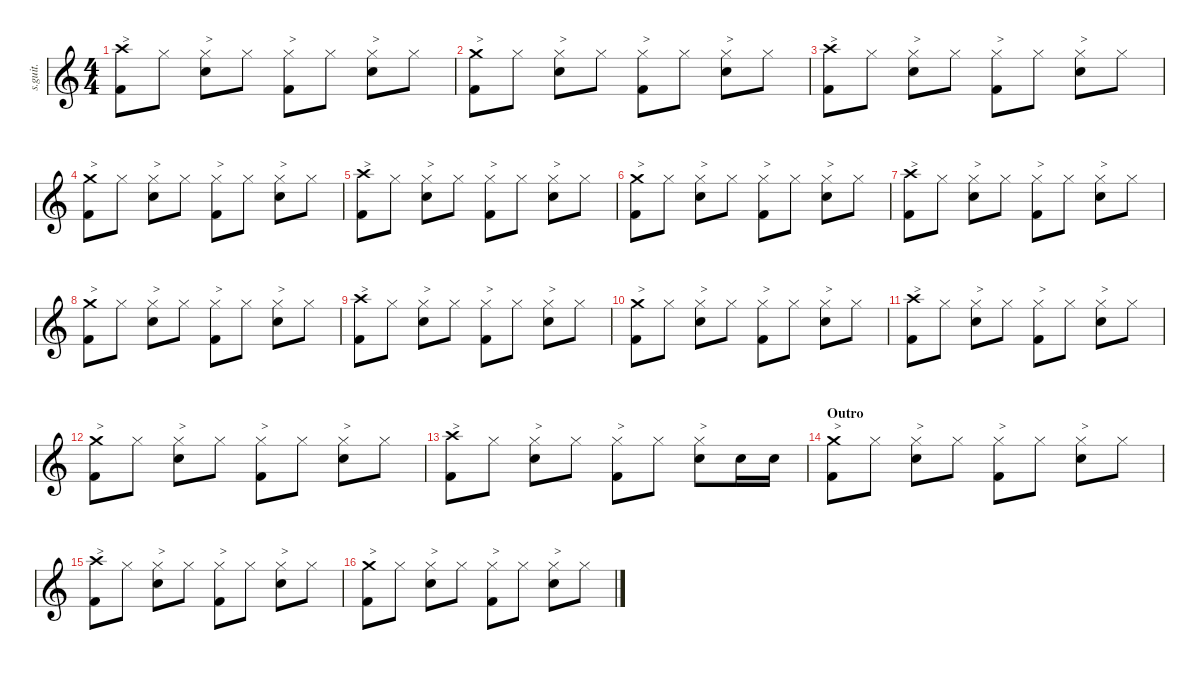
\defaultSystemsLayout 4
\hideDynamics
\bracketExtendMode nobrackets
\track ("Chris Slade" "s.guit.") {instrument percussion}
\staff {score}
\articulation defaults
\ts (4 4)
\tempo (134 hide)
\clef g2
\ks c
("Crash high (hit)" "Kick (hit) 2").8{txt ">" lyrics (0 "") lyrics (1 "") lyrics (2 "") lyrics (3 "") lyrics (4 "") dy f} "Hi-Hat (closed)".8{lyrics (0 "") lyrics (1 "") lyrics (2 "") lyrics (3 "") lyrics (4 "")} ("Hi-Hat (closed)" "Snare (hit) 2").8{txt ">" lyrics (0 "") lyrics (1 "") lyrics (2 "") lyrics (3 "") lyrics (4 "")} "Hi-Hat (closed)".8{lyrics (0 "") lyrics (1 "") lyrics (2 "") lyrics (3 "") lyrics (4 "") dy mf} ("Hi-Hat (closed)" "Kick (hit) 2").8{txt ">" lyrics (0 "") lyrics (1 "") lyrics (2 "") lyrics (3 "") lyrics (4 "") dy ff} "Hi-Hat (closed)".8{lyrics (0 "") lyrics (1 "") lyrics (2 "") lyrics (3 "") lyrics (4 "") dy mf} ("Hi-Hat (closed)" "Snare (hit) 2").8{txt ">" lyrics (0 "") lyrics (1 "") lyrics (2 "") lyrics (3 "") lyrics (4 "") dy f} "Hi-Hat (closed)".8{lyrics (0 "") lyrics (1 "") lyrics (2 "") lyrics (3 "") lyrics (4 "") dy mf} |
("Crash medium (hit)" "Kick (hit) 2").8{txt ">" lyrics (0 "") lyrics (1 "") lyrics (2 "") lyrics (3 "") lyrics (4 "") dy ff} "Hi-Hat (closed)".8{lyrics (0 "") lyrics (1 "") lyrics (2 "") lyrics (3 "") lyrics (4 "") dy f} ("Hi-Hat (closed)" "Snare (hit) 2").8{txt ">" lyrics (0 "") lyrics (1 "") lyrics (2 "") lyrics (3 "") lyrics (4 "")} "Hi-Hat (closed)".8{lyrics (0 "") lyrics (1 "") lyrics (2 "") lyrics (3 "") lyrics (4 "") dy mf} ("Hi-Hat (closed)" "Kick (hit) 2").8{txt ">" lyrics (0 "") lyrics (1 "") lyrics (2 "") lyrics (3 "") lyrics (4 "") dy ff} "Hi-Hat (closed)".8{lyrics (0 "") lyrics (1 "") lyrics (2 "") lyrics (3 "") lyrics (4 "") dy mf} ("Hi-Hat (closed)" "Snare (hit) 2").8{txt ">" lyrics (0 "") lyrics (1 "") lyrics (2 "") lyrics (3 "") lyrics (4 "") dy f} "Hi-Hat (closed)".8{lyrics (0 "") lyrics (1 "") lyrics (2 "") lyrics (3 "") lyrics (4 "") dy mf} |
("Crash high (hit)" "Kick (hit) 2").8{txt ">" lyrics (0 "") lyrics (1 "") lyrics (2 "") lyrics (3 "") lyrics (4 "") dy f} "Hi-Hat (closed)".8{lyrics (0 "") lyrics (1 "") lyrics (2 "") lyrics (3 "") lyrics (4 "")} ("Hi-Hat (closed)" "Snare (hit) 2").8{txt ">" lyrics (0 "") lyrics (1 "") lyrics (2 "") lyrics (3 "") lyrics (4 "")} "Hi-Hat (closed)".8{lyrics (0 "") lyrics (1 "") lyrics (2 "") lyrics (3 "") lyrics (4 "") dy mf} ("Hi-Hat (closed)" "Kick (hit) 2").8{txt ">" lyrics (0 "") lyrics (1 "") lyrics (2 "") lyrics (3 "") lyrics (4 "") dy ff} "Hi-Hat (closed)".8{lyrics (0 "") lyrics (1 "") lyrics (2 "") lyrics (3 "") lyrics (4 "") dy mf} ("Hi-Hat (closed)" "Snare (hit) 2").8{txt ">" lyrics (0 "") lyrics (1 "") lyrics (2 "") lyrics (3 "") lyrics (4 "") dy f} "Hi-Hat (closed)".8{lyrics (0 "") lyrics (1 "") lyrics (2 "") lyrics (3 "") lyrics (4 "") dy mf} |
("Crash medium (hit)" "Kick (hit) 2").8{txt ">" lyrics (0 "") lyrics (1 "") lyrics (2 "") lyrics (3 "") lyrics (4 "") dy ff} "Hi-Hat (closed)".8{lyrics (0 "") lyrics (1 "") lyrics (2 "") lyrics (3 "") lyrics (4 "") dy f} ("Hi-Hat (closed)" "Snare (hit) 2").8{txt ">" lyrics (0 "") lyrics (1 "") lyrics (2 "") lyrics (3 "") lyrics (4 "")} "Hi-Hat (closed)".8{lyrics (0 "") lyrics (1 "") lyrics (2 "") lyrics (3 "") lyrics (4 "") dy mf} ("Hi-Hat (closed)" "Kick (hit) 2").8{txt ">" lyrics (0 "") lyrics (1 "") lyrics (2 "") lyrics (3 "") lyrics (4 "") dy ff} "Hi-Hat (closed)".8{lyrics (0 "") lyrics (1 "") lyrics (2 "") lyrics (3 "") lyrics (4 "") dy mf} ("Hi-Hat (closed)" "Snare (hit) 2").8{txt ">" lyrics (0 "") lyrics (1 "") lyrics (2 "") lyrics (3 "") lyrics (4 "") dy f} "Hi-Hat (closed)".8{lyrics (0 "") lyrics (1 "") lyrics (2 "") lyrics (3 "") lyrics (4 "") dy mf} |
("Crash high (hit)" "Kick (hit) 2").8{txt ">" lyrics (0 "") lyrics (1 "") lyrics (2 "") lyrics (3 "") lyrics (4 "") dy f} "Hi-Hat (closed)".8{lyrics (0 "") lyrics (1 "") lyrics (2 "") lyrics (3 "") lyrics (4 "")} ("Hi-Hat (closed)" "Snare (hit) 2").8{txt ">" lyrics (0 "") lyrics (1 "") lyrics (2 "") lyrics (3 "") lyrics (4 "")} "Hi-Hat (closed)".8{lyrics (0 "") lyrics (1 "") lyrics (2 "") lyrics (3 "") lyrics (4 "") dy mf} ("Hi-Hat (closed)" "Kick (hit) 2").8{txt ">" lyrics (0 "") lyrics (1 "") lyrics (2 "") lyrics (3 "") lyrics (4 "") dy ff} "Hi-Hat (closed)".8{lyrics (0 "") lyrics (1 "") lyrics (2 "") lyrics (3 "") lyrics (4 "") dy mf} ("Hi-Hat (closed)" "Snare (hit) 2").8{txt ">" lyrics (0 "") lyrics (1 "") lyrics (2 "") lyrics (3 "") lyrics (4 "") dy f} "Hi-Hat (closed)".8{lyrics (0 "") lyrics (1 "") lyrics (2 "") lyrics (3 "") lyrics (4 "") dy mf} |
("Crash medium (hit)" "Kick (hit) 2").8{txt ">" lyrics (0 "") lyrics (1 "") lyrics (2 "") lyrics (3 "") lyrics (4 "") dy ff} "Hi-Hat (closed)".8{lyrics (0 "") lyrics (1 "") lyrics (2 "") lyrics (3 "") lyrics (4 "") dy f} ("Hi-Hat (closed)" "Snare (hit) 2").8{txt ">" lyrics (0 "") lyrics (1 "") lyrics (2 "") lyrics (3 "") lyrics (4 "")} "Hi-Hat (closed)".8{lyrics (0 "") lyrics (1 "") lyrics (2 "") lyrics (3 "") lyrics (4 "") dy mf} ("Hi-Hat (closed)" "Kick (hit) 2").8{txt ">" lyrics (0 "") lyrics (1 "") lyrics (2 "") lyrics (3 "") lyrics (4 "") dy ff} "Hi-Hat (closed)".8{lyrics (0 "") lyrics (1 "") lyrics (2 "") lyrics (3 "") lyrics (4 "") dy mf} ("Hi-Hat (closed)" "Snare (hit) 2").8{txt ">" lyrics (0 "") lyrics (1 "") lyrics (2 "") lyrics (3 "") lyrics (4 "") dy f} "Hi-Hat (closed)".8{lyrics (0 "") lyrics (1 "") lyrics (2 "") lyrics (3 "") lyrics (4 "") dy mf} |
("Crash high (hit)" "Kick (hit) 2").8{txt ">" lyrics (0 "") lyrics (1 "") lyrics (2 "") lyrics (3 "") lyrics (4 "") dy f} "Hi-Hat (closed)".8{lyrics (0 "") lyrics (1 "") lyrics (2 "") lyrics (3 "") lyrics (4 "")} ("Hi-Hat (closed)" "Snare (hit) 2").8{txt ">" lyrics (0 "") lyrics (1 "") lyrics (2 "") lyrics (3 "") lyrics (4 "")} "Hi-Hat (closed)".8{lyrics (0 "") lyrics (1 "") lyrics (2 "") lyrics (3 "") lyrics (4 "") dy mf} ("Hi-Hat (closed)" "Kick (hit) 2").8{txt ">" lyrics (0 "") lyrics (1 "") lyrics (2 "") lyrics (3 "") lyrics (4 "") dy ff} "Hi-Hat (closed)".8{lyrics (0 "") lyrics (1 "") lyrics (2 "") lyrics (3 "") lyrics (4 "") dy mf} ("Hi-Hat (closed)" "Snare (hit) 2").8{txt ">" lyrics (0 "") lyrics (1 "") lyrics (2 "") lyrics (3 "") lyrics (4 "") dy f} "Hi-Hat (closed)".8{lyrics (0 "") lyrics (1 "") lyrics (2 "") lyrics (3 "") lyrics (4 "") dy mf} |
("Crash medium (hit)" "Kick (hit) 2").8{txt ">" lyrics (0 "") lyrics (1 "") lyrics (2 "") lyrics (3 "") lyrics (4 "") dy ff} "Hi-Hat (closed)".8{lyrics (0 "") lyrics (1 "") lyrics (2 "") lyrics (3 "") lyrics (4 "") dy f} ("Hi-Hat (closed)" "Snare (hit) 2").8{txt ">" lyrics (0 "") lyrics (1 "") lyrics (2 "") lyrics (3 "") lyrics (4 "")} "Hi-Hat (closed)".8{lyrics (0 "") lyrics (1 "") lyrics (2 "") lyrics (3 "") lyrics (4 "") dy mf} ("Hi-Hat (closed)" "Kick (hit) 2").8{txt ">" lyrics (0 "") lyrics (1 "") lyrics (2 "") lyrics (3 "") lyrics (4 "") dy ff} "Hi-Hat (closed)".8{lyrics (0 "") lyrics (1 "") lyrics (2 "") lyrics (3 "") lyrics (4 "") dy mf} ("Hi-Hat (closed)" "Snare (hit) 2").8{txt ">" lyrics (0 "") lyrics (1 "") lyrics (2 "") lyrics (3 "") lyrics (4 "") dy f} "Hi-Hat (closed)".8{lyrics (0 "") lyrics (1 "") lyrics (2 "") lyrics (3 "") lyrics (4 "") dy mf} |
("Crash high (hit)" "Kick (hit) 2").8{txt ">" lyrics (0 "") lyrics (1 "") lyrics (2 "") lyrics (3 "") lyrics (4 "") dy f} "Hi-Hat (closed)".8{lyrics (0 "") lyrics (1 "") lyrics (2 "") lyrics (3 "") lyrics (4 "")} ("Hi-Hat (closed)" "Snare (hit) 2").8{txt ">" lyrics (0 "") lyrics (1 "") lyrics (2 "") lyrics (3 "") lyrics (4 "")} "Hi-Hat (closed)".8{lyrics (0 "") lyrics (1 "") lyrics (2 "") lyrics (3 "") lyrics (4 "") dy mf} ("Hi-Hat (closed)" "Kick (hit) 2").8{txt ">" lyrics (0 "") lyrics (1 "") lyrics (2 "") lyrics (3 "") lyrics (4 "") dy ff} "Hi-Hat (closed)".8{lyrics (0 "") lyrics (1 "") lyrics (2 "") lyrics (3 "") lyrics (4 "") dy mf} ("Hi-Hat (closed)" "Snare (hit) 2").8{txt ">" lyrics (0 "") lyrics (1 "") lyrics (2 "") lyrics (3 "") lyrics (4 "") dy f} "Hi-Hat (closed)".8{lyrics (0 "") lyrics (1 "") lyrics (2 "") lyrics (3 "") lyrics (4 "") dy mf} |
("Crash medium (hit)" "Kick (hit) 2").8{txt ">" lyrics (0 "") lyrics (1 "") lyrics (2 "") lyrics (3 "") lyrics (4 "") dy ff} "Hi-Hat (closed)".8{lyrics (0 "") lyrics (1 "") lyrics (2 "") lyrics (3 "") lyrics (4 "") dy f} ("Hi-Hat (closed)" "Snare (hit) 2").8{txt ">" lyrics (0 "") lyrics (1 "") lyrics (2 "") lyrics (3 "") lyrics (4 "")} "Hi-Hat (closed)".8{lyrics (0 "") lyrics (1 "") lyrics (2 "") lyrics (3 "") lyrics (4 "") dy mf} ("Hi-Hat (closed)" "Kick (hit) 2").8{txt ">" lyrics (0 "") lyrics (1 "") lyrics (2 "") lyrics (3 "") lyrics (4 "") dy ff} "Hi-Hat (closed)".8{lyrics (0 "") lyrics (1 "") lyrics (2 "") lyrics (3 "") lyrics (4 "") dy mf} ("Hi-Hat (closed)" "Snare (hit) 2").8{txt ">" lyrics (0 "") lyrics (1 "") lyrics (2 "") lyrics (3 "") lyrics (4 "") dy f} "Hi-Hat (closed)".8{lyrics (0 "") lyrics (1 "") lyrics (2 "") lyrics (3 "") lyrics (4 "") dy mf} |
("Crash high (hit)" "Kick (hit) 2").8{txt ">" lyrics (0 "") lyrics (1 "") lyrics (2 "") lyrics (3 "") lyrics (4 "") dy f} "Hi-Hat (closed)".8{lyrics (0 "") lyrics (1 "") lyrics (2 "") lyrics (3 "") lyrics (4 "")} ("Hi-Hat (closed)" "Snare (hit) 2").8{txt ">" lyrics (0 "") lyrics (1 "") lyrics (2 "") lyrics (3 "") lyrics (4 "")} "Hi-Hat (closed)".8{lyrics (0 "") lyrics (1 "") lyrics (2 "") lyrics (3 "") lyrics (4 "") dy mf} ("Hi-Hat (closed)" "Kick (hit) 2").8{txt ">" lyrics (0 "") lyrics (1 "") lyrics (2 "") lyrics (3 "") lyrics (4 "") dy ff} "Hi-Hat (closed)".8{lyrics (0 "") lyrics (1 "") lyrics (2 "") lyrics (3 "") lyrics (4 "") dy mf} ("Hi-Hat (closed)" "Snare (hit) 2").8{txt ">" lyrics (0 "") lyrics (1 "") lyrics (2 "") lyrics (3 "") lyrics (4 "") dy f} "Hi-Hat (closed)".8{lyrics (0 "") lyrics (1 "") lyrics (2 "") lyrics (3 "") lyrics (4 "") dy mf} |
("Crash medium (hit)" "Kick (hit) 2").8{txt ">" lyrics (0 "") lyrics (1 "") lyrics (2 "") lyrics (3 "") lyrics (4 "") dy ff} "Hi-Hat (closed)".8{lyrics (0 "") lyrics (1 "") lyrics (2 "") lyrics (3 "") lyrics (4 "") dy f} ("Hi-Hat (closed)" "Snare (hit) 2").8{txt ">" lyrics (0 "") lyrics (1 "") lyrics (2 "") lyrics (3 "") lyrics (4 "")} "Hi-Hat (closed)".8{lyrics (0 "") lyrics (1 "") lyrics (2 "") lyrics (3 "") lyrics (4 "") dy mf} ("Hi-Hat (closed)" "Kick (hit) 2").8{txt ">" lyrics (0 "") lyrics (1 "") lyrics (2 "") lyrics (3 "") lyrics (4 "") dy ff} "Hi-Hat (closed)".8{lyrics (0 "") lyrics (1 "") lyrics (2 "") lyrics (3 "") lyrics (4 "") dy mf} ("Hi-Hat (closed)" "Snare (hit) 2").8{txt ">" lyrics (0 "") lyrics (1 "") lyrics (2 "") lyrics (3 "") lyrics (4 "") dy f} "Hi-Hat (closed)".8{lyrics (0 "") lyrics (1 "") lyrics (2 "") lyrics (3 "") lyrics (4 "") dy mf} |
("Crash high (hit)" "Kick (hit) 2").8{txt ">" lyrics (0 "") lyrics (1 "") lyrics (2 "") lyrics (3 "") lyrics (4 "") dy f} "Hi-Hat (closed)".8{lyrics (0 "") lyrics (1 "") lyrics (2 "") lyrics (3 "") lyrics (4 "")} ("Hi-Hat (closed)" "Snare (hit) 2").8{txt ">" lyrics (0 "") lyrics (1 "") lyrics (2 "") lyrics (3 "") lyrics (4 "")} "Hi-Hat (closed)".8{lyrics (0 "") lyrics (1 "") lyrics (2 "") lyrics (3 "") lyrics (4 "") dy mf} ("Hi-Hat (closed)" "Kick (hit) 2").8{txt ">" lyrics (0 "") lyrics (1 "") lyrics (2 "") lyrics (3 "") lyrics (4 "") dy ff} "Hi-Hat (closed)".8{lyrics (0 "") lyrics (1 "") lyrics (2 "") lyrics (3 "") lyrics (4 "") dy mf} ("Hi-Hat (closed)" "Snare (hit) 2").8{txt ">" lyrics (0 "") lyrics (1 "") lyrics (2 "") lyrics (3 "") lyrics (4 "") dy f} "Snare (hit) 2".16{lyrics (0 "") lyrics (1 "") lyrics (2 "") lyrics (3 "") lyrics (4 "") dy mf} "Snare (hit) 2".16{lyrics (0 "") lyrics (1 "") lyrics (2 "") lyrics (3 "") lyrics (4 "")} |
\section ("" "Outro")
("Crash medium (hit)" "Kick (hit) 2").8{txt ">" lyrics (0 "") lyrics (1 "") lyrics (2 "") lyrics (3 "") lyrics (4 "") dy ff} "Hi-Hat (closed)".8{lyrics (0 "") lyrics (1 "") lyrics (2 "") lyrics (3 "") lyrics (4 "") dy f} ("Hi-Hat (closed)" "Snare (hit) 2").8{txt ">" lyrics (0 "") lyrics (1 "") lyrics (2 "") lyrics (3 "") lyrics (4 "")} "Hi-Hat (closed)".8{lyrics (0 "") lyrics (1 "") lyrics (2 "") lyrics (3 "") lyrics (4 "") dy mf} ("Hi-Hat (closed)" "Kick (hit) 2").8{txt ">" lyrics (0 "") lyrics (1 "") lyrics (2 "") lyrics (3 "") lyrics (4 "") dy ff} "Hi-Hat (closed)".8{lyrics (0 "") lyrics (1 "") lyrics (2 "") lyrics (3 "") lyrics (4 "") dy mf} ("Hi-Hat (closed)" "Snare (hit) 2").8{txt ">" lyrics (0 "") lyrics (1 "") lyrics (2 "") lyrics (3 "") lyrics (4 "") dy f} "Hi-Hat (closed)".8{lyrics (0 "") lyrics (1 "") lyrics (2 "") lyrics (3 "") lyrics (4 "") dy mf} |
("Crash high (hit)" "Kick (hit) 2").8{txt ">" lyrics (0 "") lyrics (1 "") lyrics (2 "") lyrics (3 "") lyrics (4 "") dy f} "Hi-Hat (closed)".8{lyrics (0 "") lyrics (1 "") lyrics (2 "") lyrics (3 "") lyrics (4 "")} ("Hi-Hat (closed)" "Snare (hit) 2").8{txt ">" lyrics (0 "") lyrics (1 "") lyrics (2 "") lyrics (3 "") lyrics (4 "")} "Hi-Hat (closed)".8{lyrics (0 "") lyrics (1 "") lyrics (2 "") lyrics (3 "") lyrics (4 "") dy mf} ("Hi-Hat (closed)" "Kick (hit) 2").8{txt ">" lyrics (0 "") lyrics (1 "") lyrics (2 "") lyrics (3 "") lyrics (4 "") dy ff} "Hi-Hat (closed)".8{lyrics (0 "") lyrics (1 "") lyrics (2 "") lyrics (3 "") lyrics (4 "") dy mf} ("Hi-Hat (closed)" "Snare (hit) 2").8{txt ">" lyrics (0 "") lyrics (1 "") lyrics (2 "") lyrics (3 "") lyrics (4 "") dy f} "Hi-Hat (closed)".8{lyrics (0 "") lyrics (1 "") lyrics (2 "") lyrics (3 "") lyrics (4 "") dy mf} |
("Crash medium (hit)" "Kick (hit) 2").8{txt ">" lyrics (0 "") lyrics (1 "") lyrics (2 "") lyrics (3 "") lyrics (4 "") dy ff} "Hi-Hat (closed)".8{lyrics (0 "") lyrics (1 "") lyrics (2 "") lyrics (3 "") lyrics (4 "") dy f} ("Hi-Hat (closed)" "Snare (hit) 2").8{txt ">" lyrics (0 "") lyrics (1 "") lyrics (2 "") lyrics (3 "") lyrics (4 "")} "Hi-Hat (closed)".8{lyrics (0 "") lyrics (1 "") lyrics (2 "") lyrics (3 "") lyrics (4 "") dy mf} ("Hi-Hat (closed)" "Kick (hit) 2").8{txt ">" lyrics (0 "") lyrics (1 "") lyrics (2 "") lyrics (3 "") lyrics (4 "") dy ff} "Hi-Hat (closed)".8{lyrics (0 "") lyrics (1 "") lyrics (2 "") lyrics (3 "") lyrics (4 "") dy mf} ("Hi-Hat (closed)" "Snare (hit) 2").8{txt ">" lyrics (0 "") lyrics (1 "") lyrics (2 "") lyrics (3 "") lyrics (4 "") dy f} "Hi-Hat (closed)".8{lyrics (0 "") lyrics (1 "") lyrics (2 "") lyrics (3 "") lyrics (4 "") dy mf}
